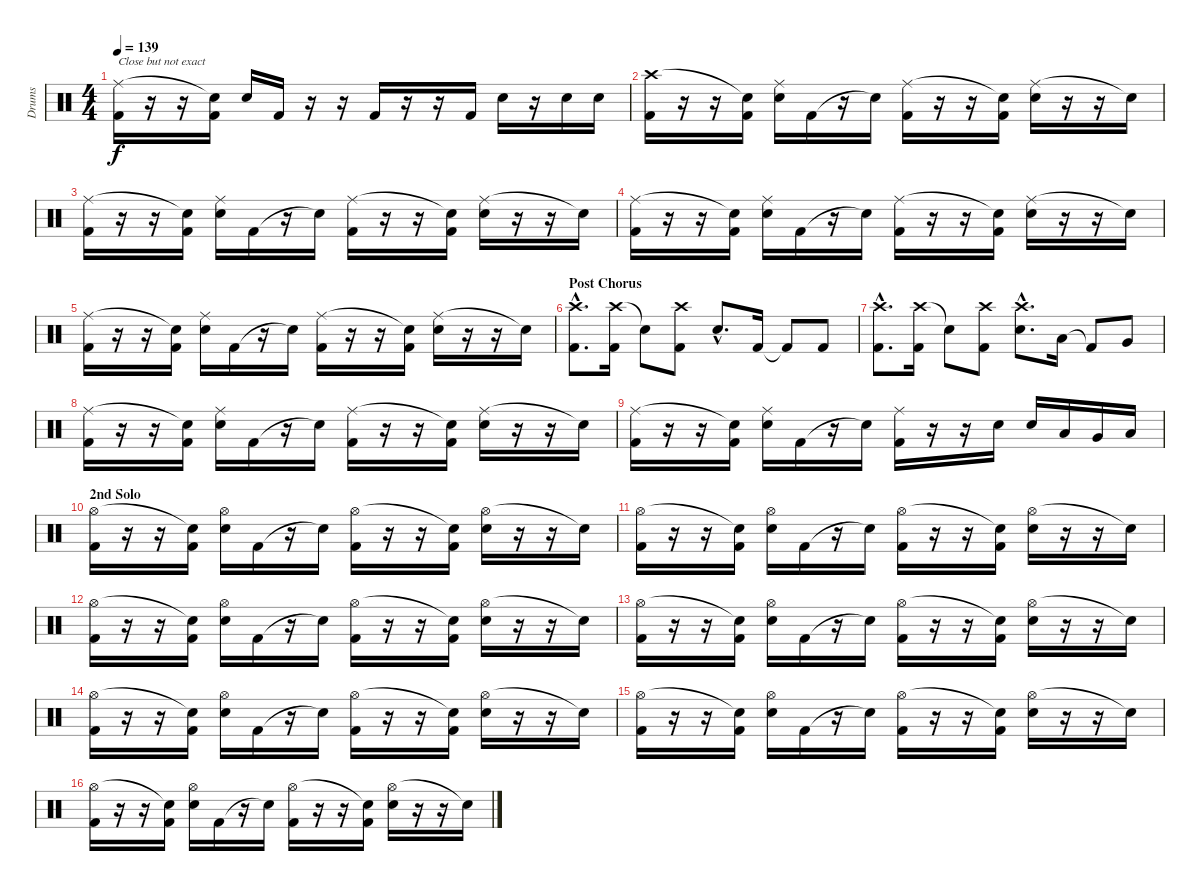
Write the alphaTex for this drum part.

\track ("Drums" "Drums") {instrument percussion}
\staff {score}
\articulation defaults
\ts (4 4)
\tempo 139
\clef neutral
\ks c
("Ride (middle)" "Kick (hit) 2").16{txt "Close but not exact" dy f} r.16 r.16 ("Snare (hit)"{t} "Kick (hit) 2").16 "Snare (hit) 2".16 "Kick (hit) 2".16 r.16 r.16 "Kick (hit) 2".16 r.16 r.16 "Kick (hit) 2".16 "Snare (hit) 2".16 r.16 "Snare (hit) 2".16 "Snare (hit) 2".16 |
("Crash high (hit)" "Kick (hit) 2").16 r.16 r.16 ("Snare (hit)"{t} "Kick (hit) 2").16 ("Ride (middle)" "Snare (hit) 2").16 "Kick (hit) 2".16 r.16 "Snare (hit)"{t}.16 ("Ride (middle)" "Kick (hit) 2").16 r.16 r.16 ("Snare (hit)"{t} "Kick (hit) 2").16 ("Ride (middle)" "Snare (hit) 2").16 r.16 r.16 "Snare (hit)"{t}.16 |
("Ride (middle)" "Kick (hit) 2").16 r.16 r.16 ("Snare (hit)"{t} "Kick (hit) 2").16 ("Ride (middle)" "Snare (hit) 2").16 "Kick (hit) 2".16 r.16 "Snare (hit)"{t}.16 ("Ride (middle)" "Kick (hit) 2").16 r.16 r.16 ("Snare (hit)"{t} "Kick (hit) 2").16 ("Ride (middle)" "Snare (hit) 2").16 r.16 r.16 "Snare (hit)"{t}.16 |
("Ride (middle)" "Kick (hit) 2").16 r.16 r.16 ("Snare (hit)"{t} "Kick (hit) 2").16 ("Ride (middle)" "Snare (hit) 2").16 "Kick (hit) 2".16 r.16 "Snare (hit)"{t}.16 ("Ride (middle)" "Kick (hit) 2").16 r.16 r.16 ("Snare (hit)"{t} "Kick (hit) 2").16 ("Ride (middle)" "Snare (hit) 2").16 r.16 r.16 "Snare (hit)"{t}.16 |
("Ride (middle)" "Kick (hit) 2").16 r.16 r.16 ("Snare (hit)"{t} "Kick (hit) 2").16 ("Ride (middle)" "Snare (hit) 2").16 "Kick (hit) 2".16 r.16 "Snare (hit)"{t}.16 ("Ride (middle)" "Kick (hit) 2").16 r.16 r.16 ("Snare (hit)"{t} "Kick (hit) 2").16 ("Ride (middle)" "Snare (hit) 2").16 r.16 r.16 "Snare (hit)"{t}.16 |
\section ("" "Post Chorus")
("Crash high (hit)"{hac} "Kick (hit) 2"{hac}).8{d} ("Crash high (hit)" "Kick (hit) 2").16 "Snare (hit)"{t}.8 ("Crash high (hit)" "Kick (hit) 2").8 "Snare (hit) 2"{hac}.8{d} "Kick (hit) 2".16 "Kick (hit) 2"{t}.8 "Kick (hit) 2".8 |
("Crash high (hit)"{hac} "Kick (hit) 2"{hac}).8{d} ("Crash high (hit)" "Kick (hit) 2").16 "Snare (hit)"{t}.8 ("Crash high (hit)" "Kick (hit) 2").8 ("Crash high (hit)"{hac} "Snare (hit) 2"{hac}).8{d} "Low Tom (hit)".16 "Kick (hit) 2"{t}.8 "Very Low Tom (hit)".8 |
("Ride (middle)" "Kick (hit) 2").16 r.16 r.16 ("Snare (hit)"{t} "Kick (hit) 2").16 ("Ride (middle)" "Snare (hit) 2").16 "Kick (hit) 2".16 r.16 "Snare (hit)"{t}.16 ("Ride (middle)" "Kick (hit) 2").16 r.16 r.16 ("Snare (hit)"{t} "Kick (hit) 2").16 ("Ride (middle)" "Snare (hit) 2").16 r.16 r.16 "Snare (hit)"{t}.16 |
("Ride (middle)" "Kick (hit) 2").16 r.16 r.16 ("Snare (hit)"{t} "Kick (hit) 2").16 ("Ride (middle)" "Snare (hit) 2").16 "Kick (hit) 2".16 r.16 "Snare (hit)"{t}.16 ("Ride (middle)" "Kick (hit) 2").16 r.16 r.16 "Snare (hit) 2".16 "Snare (hit) 2".16 "Low Tom (hit)".16 "Very Low Tom (hit)".16 "Low Floor Tom (hit)".16 |
\section ("" "2nd Solo")
("Hi-Hat (open)" "Kick (hit) 2").16 r.16 r.16 ("Snare (hit)"{t} "Kick (hit) 2").16 ("Hi-Hat (open)" "Snare (hit) 2").16 "Kick (hit) 2".16 r.16 "Snare (hit)"{t}.16 ("Hi-Hat (open)" "Kick (hit) 2").16 r.16 r.16 ("Snare (hit)"{t} "Kick (hit) 2").16 ("Hi-Hat (open)" "Snare (hit) 2").16 r.16 r.16 "Snare (hit)"{t}.16 |
("Hi-Hat (open)" "Kick (hit) 2").16 r.16 r.16 ("Snare (hit)"{t} "Kick (hit) 2").16 ("Hi-Hat (open)" "Snare (hit) 2").16 "Kick (hit) 2".16 r.16 "Snare (hit)"{t}.16 ("Hi-Hat (open)" "Kick (hit) 2").16 r.16 r.16 ("Snare (hit)"{t} "Kick (hit) 2").16 ("Hi-Hat (open)" "Snare (hit) 2").16 r.16 r.16 "Snare (hit)"{t}.16 |
("Hi-Hat (open)" "Kick (hit) 2").16 r.16 r.16 ("Snare (hit)"{t} "Kick (hit) 2").16 ("Hi-Hat (open)" "Snare (hit) 2").16 "Kick (hit) 2".16 r.16 "Snare (hit)"{t}.16 ("Hi-Hat (open)" "Kick (hit) 2").16 r.16 r.16 ("Snare (hit)"{t} "Kick (hit) 2").16 ("Hi-Hat (open)" "Snare (hit) 2").16 r.16 r.16 "Snare (hit)"{t}.16 |
("Hi-Hat (open)" "Kick (hit) 2").16 r.16 r.16 ("Snare (hit)"{t} "Kick (hit) 2").16 ("Hi-Hat (open)" "Snare (hit) 2").16 "Kick (hit) 2".16 r.16 "Snare (hit)"{t}.16 ("Hi-Hat (open)" "Kick (hit) 2").16 r.16 r.16 ("Snare (hit)"{t} "Kick (hit) 2").16 ("Hi-Hat (open)" "Snare (hit) 2").16 r.16 r.16 "Snare (hit)"{t}.16 |
("Hi-Hat (open)" "Kick (hit) 2").16 r.16 r.16 ("Snare (hit)"{t} "Kick (hit) 2").16 ("Hi-Hat (open)" "Snare (hit) 2").16 "Kick (hit) 2".16 r.16 "Snare (hit)"{t}.16 ("Hi-Hat (open)" "Kick (hit) 2").16 r.16 r.16 ("Snare (hit)"{t} "Kick (hit) 2").16 ("Hi-Hat (open)" "Snare (hit) 2").16 r.16 r.16 "Snare (hit)"{t}.16 |
("Hi-Hat (open)" "Kick (hit) 2").16 r.16 r.16 ("Snare (hit)"{t} "Kick (hit) 2").16 ("Hi-Hat (open)" "Snare (hit) 2").16 "Kick (hit) 2".16 r.16 "Snare (hit)"{t}.16 ("Hi-Hat (open)" "Kick (hit) 2").16 r.16 r.16 ("Snare (hit)"{t} "Kick (hit) 2").16 ("Hi-Hat (open)" "Snare (hit) 2").16 r.16 r.16 "Snare (hit)"{t}.16 |
("Hi-Hat (open)" "Kick (hit) 2").16 r.16 r.16 ("Snare (hit)"{t} "Kick (hit) 2").16 ("Hi-Hat (open)" "Snare (hit) 2").16 "Kick (hit) 2".16 r.16 "Snare (hit)"{t}.16 ("Hi-Hat (open)" "Kick (hit) 2").16 r.16 r.16 ("Snare (hit)"{t} "Kick (hit) 2").16 ("Hi-Hat (open)" "Snare (hit) 2").16 r.16 r.16 "Snare (hit)"{t}.16
